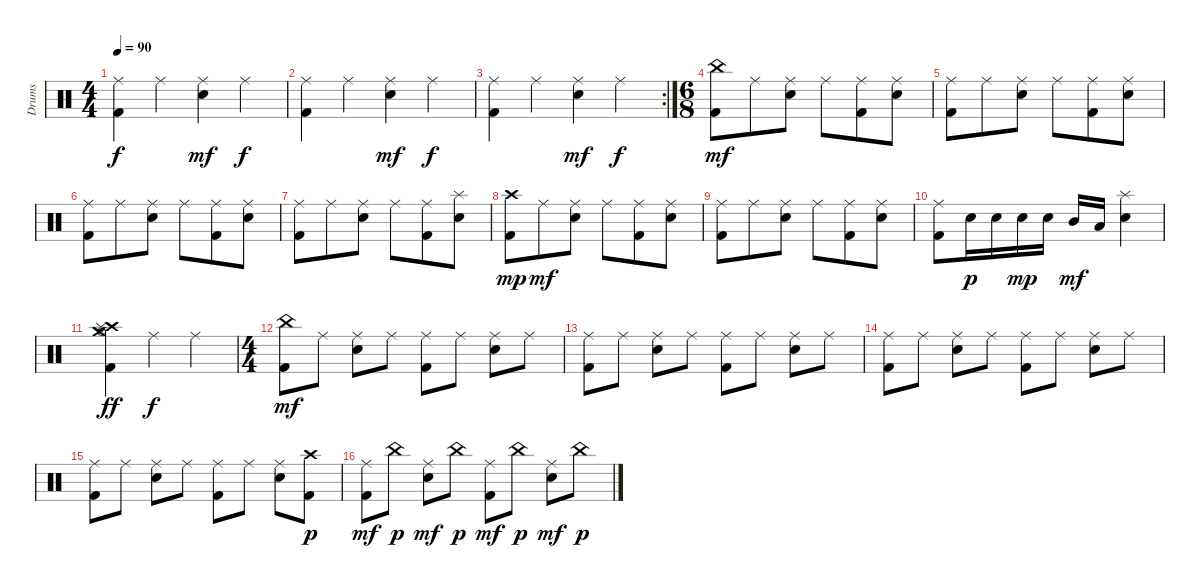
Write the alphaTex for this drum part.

\track ("Drums" "Drums") {instrument percussion}
\staff {score}
\articulation defaults
\ts (4 4)
\tempo 90
\clef neutral
\ks c
("Ride (middle)" "Kick (hit) 2").4{dy f} "Ride (middle)".4 ("Ride (middle)" "Electric Snare (hit)").4{dy mf} "Ride (middle)".4{dy f} |
("Ride (middle)" "Kick (hit) 2").4 "Ride (middle)".4 ("Ride (middle)" "Electric Snare (hit)").4{dy mf} "Ride (middle)".4{dy f} |
\rc 2
("Ride (middle)" "Kick (hit) 2").4 "Ride (middle)".4 ("Ride (middle)" "Electric Snare (hit)").4{dy mf} "Ride (middle)".4{dy f} |
\ts (6 8)
("China (hit)" "Kick (hit) 2").8{dy mf} "Ride (middle)".8 ("Ride (middle)" "Electric Snare (hit)").8 "Ride (middle)".8 ("Ride (middle)" "Kick (hit) 2").8 ("Ride (middle)" "Electric Snare (hit)").8 |
("Ride (middle)" "Kick (hit) 2").8 "Ride (middle)".8 ("Ride (middle)" "Electric Snare (hit)").8 "Ride (middle)".8 ("Ride (middle)" "Kick (hit) 2").8 ("Ride (middle)" "Electric Snare (hit)").8 |
("Ride (middle)" "Kick (hit) 2").8 "Ride (middle)".8 ("Ride (middle)" "Electric Snare (hit)").8 "Ride (middle)".8 ("Ride (middle)" "Kick (hit) 2").8 ("Ride (middle)" "Electric Snare (hit)").8 |
("Ride (middle)" "Kick (hit) 2").8 "Ride (middle)".8 ("Ride (middle)" "Electric Snare (hit)").8 "Ride (middle)".8 ("Ride (middle)" "Kick (hit) 2").8 ("Splash (hit)" "Electric Snare (hit)").8 |
("Crash high (hit)" "Kick (hit) 2").8{dy mp} "Ride (middle)".8{dy mf} ("Ride (middle)" "Electric Snare (hit)").8 "Ride (middle)".8 ("Ride (middle)" "Kick (hit) 2").8 ("Ride (middle)" "Electric Snare (hit)").8 |
("Ride (middle)" "Kick (hit) 2").8 "Ride (middle)".8 ("Ride (middle)" "Electric Snare (hit)").8 "Ride (middle)".8 ("Ride (middle)" "Kick (hit) 2").8 ("Ride (middle)" "Electric Snare (hit)").8 |
("Ride (middle)" "Kick (hit) 2").8 "Electric Snare (hit)".16{dy p} "Electric Snare (hit)".16 "Electric Snare (hit)".16{dy mp} "Electric Snare (hit)".16 "Mid Tom (hit)".16{dy mf} "Low Tom (hit)".16 ("Splash (hit)" "Electric Snare (hit)").4 |
("Crash medium (hit)" "Crash high (hit)" "Splash (hit)" "Hi-Hat (open)" "Kick (hit) 2").4{bd 30 dy ff} "Ride (middle)".4{dy f} "Ride (middle)".4 |
\ts (4 4)
("China (hit)" "Kick (hit) 2").8{dy mf} "Ride (middle)".8 ("Ride (middle)" "Electric Snare (hit)").8 "Ride (middle)".8 ("Ride (middle)" "Kick (hit) 2").8 "Ride (middle)".8 ("Ride (middle)" "Electric Snare (hit)").8 "Ride (middle)".8 |
("Ride (middle)" "Kick (hit) 2").8 "Ride (middle)".8 ("Ride (middle)" "Electric Snare (hit)").8 "Ride (middle)".8 ("Ride (middle)" "Kick (hit) 2").8 "Ride (middle)".8 ("Ride (middle)" "Electric Snare (hit)").8 "Ride (middle)".8 |
("Ride (middle)" "Kick (hit) 2").8 "Ride (middle)".8 ("Ride (middle)" "Electric Snare (hit)").8 "Ride (middle)".8 ("Ride (middle)" "Kick (hit) 2").8 "Ride (middle)".8 ("Ride (middle)" "Electric Snare (hit)").8 "Ride (middle)".8 |
("Ride (middle)" "Kick (hit) 2").8 "Ride (middle)".8 ("Ride (middle)" "Electric Snare (hit)").8 "Ride (middle)".8 ("Ride (middle)" "Kick (hit) 2").8 "Ride (middle)".8 ("Ride (middle)" "Electric Snare (hit)").8 ("Crash high (hit)" "Kick (hit) 2").8{dy p} |
("Ride (middle)" "Kick (hit) 2").8{dy mf} "China (hit)".8{dy p} ("Ride (middle)" "Electric Snare (hit)").8{dy mf} "China (hit)".8{dy p} ("Ride (middle)" "Kick (hit) 2").8{dy mf} "China (hit)".8{dy p} ("Ride (middle)" "Electric Snare (hit)").8{dy mf} "China (hit)".8{dy p}
